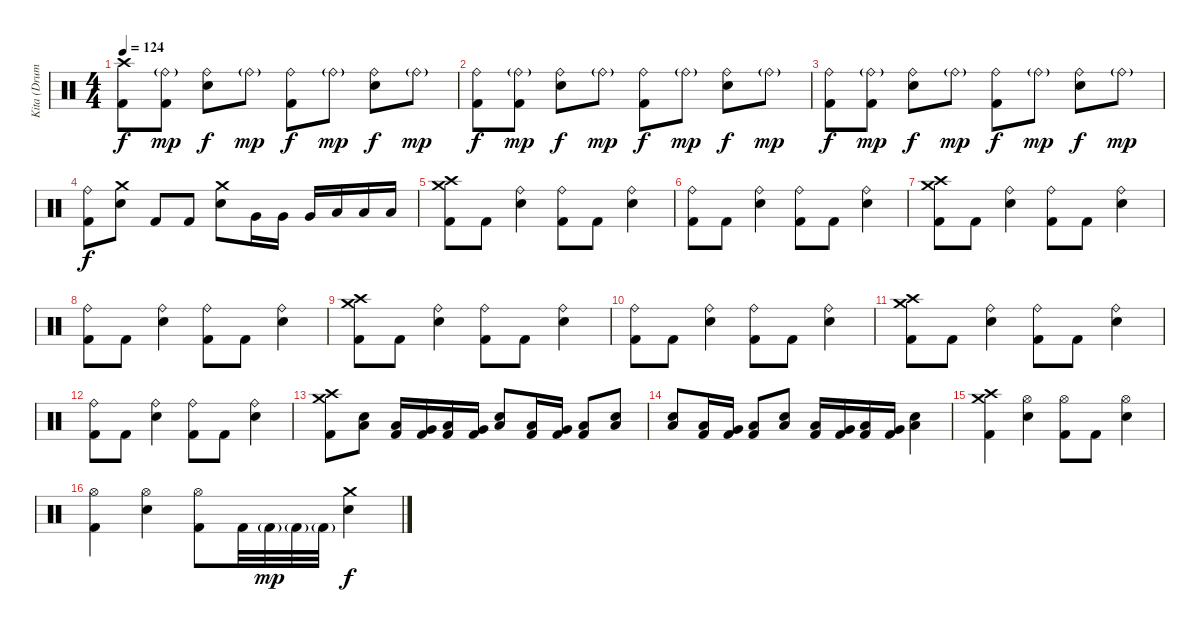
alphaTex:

\track ("Kita (Drums)" "Kita (Drum") {instrument percussion}
\staff {score}
\articulation defaults
\ts (4 4)
\tempo 124
\clef neutral
\ks c
("Crash high (hit)" "Kick (hit) 2").8{dy f} ("Ride (bell)"{g} "Kick (hit) 2").8{dy mp} ("Ride (bell)" "Electric Snare (hit)").8{dy f} "Ride (bell)"{g}.8{dy mp} ("Ride (bell)" "Kick (hit) 2").8{dy f} "Ride (bell)"{g}.8{dy mp} ("Ride (bell)" "Electric Snare (hit)").8{dy f} "Ride (bell)"{g}.8{dy mp} |
("Ride (bell)" "Kick (hit) 2").8{dy f} ("Ride (bell)"{g} "Kick (hit) 2").8{dy mp} ("Ride (bell)" "Electric Snare (hit)").8{dy f} "Ride (bell)"{g}.8{dy mp} ("Ride (bell)" "Kick (hit) 2").8{dy f} "Ride (bell)"{g}.8{dy mp} ("Ride (bell)" "Electric Snare (hit)").8{dy f} "Ride (bell)"{g}.8{dy mp} |
("Ride (bell)" "Kick (hit) 2").8{dy f} ("Ride (bell)"{g} "Kick (hit) 2").8{dy mp} ("Ride (bell)" "Electric Snare (hit)").8{dy f} "Ride (bell)"{g}.8{dy mp} ("Ride (bell)" "Kick (hit) 2").8{dy f} "Ride (bell)"{g}.8{dy mp} ("Ride (bell)" "Electric Snare (hit)").8{dy f} "Ride (bell)"{g}.8{dy mp} |
("Ride (bell)" "Kick (hit) 2").8{dy f} ("Crash medium (hit)" "Electric Snare (hit)").8 "Kick (hit) 2".8 "Kick (hit) 2".8 ("Crash medium (hit)" "Electric Snare (hit)").8 "Very Low Tom (hit)".16 "Very Low Tom (hit)".16 "Very Low Tom (hit)".16 "Low Floor Tom (hit)".16 "Low Floor Tom (hit)".16 "Low Floor Tom (hit)".16 |
("Crash medium (hit)" "Crash high (hit)" "Kick (hit) 2").8 "Kick (hit) 2".8 ("Ride (bell)" "Electric Snare (hit)").4 ("Ride (bell)" "Kick (hit) 2").8 "Kick (hit) 2".8 ("Ride (bell)" "Electric Snare (hit)").4 |
("Ride (bell)" "Kick (hit) 2").8 "Kick (hit) 2".8 ("Ride (bell)" "Electric Snare (hit)").4 ("Ride (bell)" "Kick (hit) 2").8 "Kick (hit) 2".8 ("Ride (bell)" "Electric Snare (hit)").4 |
("Crash medium (hit)" "Crash high (hit)" "Kick (hit) 2").8 "Kick (hit) 2".8 ("Ride (bell)" "Electric Snare (hit)").4 ("Ride (bell)" "Kick (hit) 2").8 "Kick (hit) 2".8 ("Ride (bell)" "Electric Snare (hit)").4 |
("Ride (bell)" "Kick (hit) 2").8 "Kick (hit) 2".8 ("Ride (bell)" "Electric Snare (hit)").4 ("Ride (bell)" "Kick (hit) 2").8 "Kick (hit) 2".8 ("Ride (bell)" "Electric Snare (hit)").4 |
("Crash medium (hit)" "Crash high (hit)" "Kick (hit) 2").8 "Kick (hit) 2".8 ("Ride (bell)" "Electric Snare (hit)").4 ("Ride (bell)" "Kick (hit) 2").8 "Kick (hit) 2".8 ("Ride (bell)" "Electric Snare (hit)").4 |
("Ride (bell)" "Kick (hit) 2").8 "Kick (hit) 2".8 ("Ride (bell)" "Electric Snare (hit)").4 ("Ride (bell)" "Kick (hit) 2").8 "Kick (hit) 2".8 ("Ride (bell)" "Electric Snare (hit)").4 |
("Crash medium (hit)" "Crash high (hit)" "Kick (hit) 2").8 "Kick (hit) 2".8 ("Ride (bell)" "Electric Snare (hit)").4 ("Ride (bell)" "Kick (hit) 2").8 "Kick (hit) 2".8 ("Ride (bell)" "Electric Snare (hit)").4 |
("Ride (bell)" "Kick (hit) 2").8 "Kick (hit) 2".8 ("Ride (bell)" "Electric Snare (hit)").4 ("Ride (bell)" "Kick (hit) 2").8 "Kick (hit) 2".8 ("Ride (bell)" "Electric Snare (hit)").4 |
("Crash medium (hit)" "Crash high (hit)" "Kick (hit) 2").8 ("Low Floor Tom (hit)" "Electric Snare (hit)").8 ("Low Floor Tom (hit)" "Kick (hit) 2").16 ("Very Low Tom (hit)" "Kick (hit) 2").16 ("Low Floor Tom (hit)" "Kick (hit) 2").16 ("Very Low Tom (hit)" "Kick (hit) 2").16 ("Low Floor Tom (hit)" "Electric Snare (hit)").8 ("Low Floor Tom (hit)" "Kick (hit) 2").16 ("Very Low Tom (hit)" "Kick (hit) 2").16 ("Low Floor Tom (hit)" "Kick (hit) 2").8 ("Low Floor Tom (hit)" "Electric Snare (hit)").8 |
("Low Floor Tom (hit)" "Electric Snare (hit)").8 ("Low Floor Tom (hit)" "Kick (hit) 2").16 ("Very Low Tom (hit)" "Kick (hit) 2").16 ("Low Floor Tom (hit)" "Kick (hit) 2").8 ("Low Floor Tom (hit)" "Electric Snare (hit)").8 ("Low Floor Tom (hit)" "Kick (hit) 2").16 ("Very Low Tom (hit)" "Kick (hit) 2").16 ("Low Floor Tom (hit)" "Kick (hit) 2").16 ("Very Low Tom (hit)" "Kick (hit) 2").16 ("Low Floor Tom (hit)" "Electric Snare (hit)").4 |
("Crash medium (hit)" "Crash high (hit)" "Kick (hit) 2").4 ("Hi-Hat (open)" "Electric Snare (hit)").4 ("Hi-Hat (open)" "Kick (hit) 2").8 "Kick (hit) 2".8 ("Hi-Hat (open)" "Electric Snare (hit)").4 |
("Hi-Hat (open)" "Kick (hit) 2").4 ("Hi-Hat (open)" "Electric Snare (hit)").4 ("Hi-Hat (open)" "Kick (hit) 2").8 "Kick (hit) 2".32 "Kick (hit) 2"{g}.32{dy mp} "Kick (hit) 2"{g}.32 "Kick (hit) 2"{g}.32 ("Crash medium (hit)" "Electric Snare (hit)").4{dy f}
